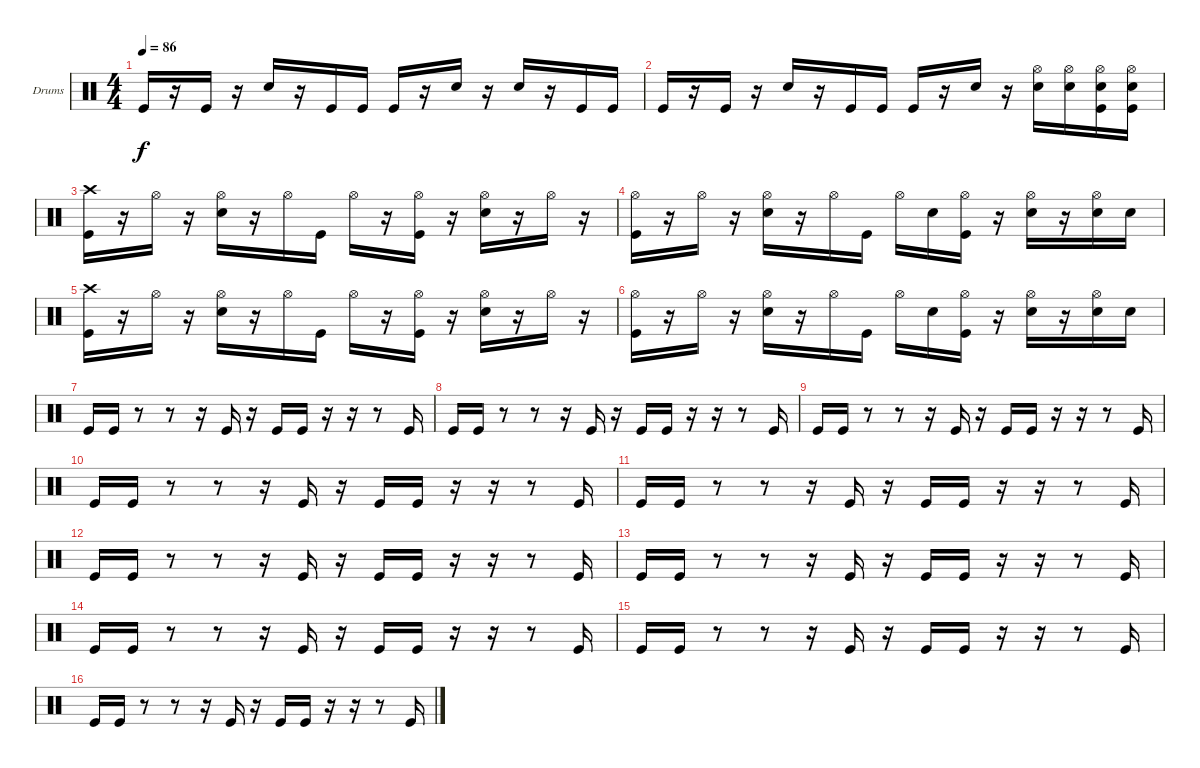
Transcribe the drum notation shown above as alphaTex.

\defaultSystemsLayout 4
\bracketExtendMode groupsimilarinstruments
\firstSystemTrackNameOrientation horizontal
\otherSystemsTrackNameOrientation horizontal
\track ("Rocky Gray (Drums)" "Drums") {instrument percussion}
\staff {score}
\articulation defaults
\ts (4 4)
\tempo 86
\clef neutral
\scale
0.472222
\ks c "Kick (hit)".16{dy f}
r.16 "Kick (hit)".16 r.16 "Snare (hit) 2".16 r.16 "Kick (hit)".16 "Kick (hit)".16 "Kick (hit)".16 r.16 "Snare (hit) 2".16 r.16 "Snare (hit) 2".16 r.16 "Kick (hit)".16 "Kick (hit)".16 |
\scale
0.263889 "Kick (hit)".16 r.16 "Kick (hit)".16 r.16 "Snare (hit) 2".16 r.16 "Kick (hit)".16 "Kick (hit)".16 "Kick (hit)".16 r.16 "Snare (hit) 2".16 r.16 ("Hi-Hat (open)" "Snare (hit) 2").16 ("Hi-Hat (open)" "Snare (hit) 2").16 ("Hi-Hat (open)" "Snare (hit) 2" "Kick (hit)").16 ("Hi-Hat (open)" "Snare (hit) 2" "Kick (hit)").16 |
\scale
0.263889 ("Crash high (hit)" "Kick (hit)").16 r.16 "Hi-Hat (open)".16 r.16 ("Hi-Hat (open)" "Snare (hit) 2").16 r.16 "Hi-Hat (open)".16 "Kick (hit)".16 "Hi-Hat (open)".16 r.16 ("Hi-Hat (open)" "Kick (hit)").16 r.16 ("Hi-Hat (open)" "Snare (hit) 2").16 r.16 "Hi-Hat (open)".16 r.16 |
\scale
0.333333 ("Hi-Hat (open)" "Kick (hit)").16 r.16 "Hi-Hat (open)".16 r.16 ("Hi-Hat (open)" "Snare (hit) 2").16 r.16 "Hi-Hat (open)".16 "Kick (hit)".16 "Hi-Hat (open)".16 "Snare (hit) 2".16 ("Hi-Hat (open)" "Kick (hit)").16 r.16 ("Hi-Hat (open)" "Snare (hit) 2").16 r.16 ("Hi-Hat (open)" "Snare (hit) 2").16 "Snare (hit) 2".16 |
\scale
0.333333 ("Crash high (hit)" "Kick (hit)").16 r.16 "Hi-Hat (open)".16 r.16 ("Hi-Hat (open)" "Snare (hit) 2").16 r.16 "Hi-Hat (open)".16 "Kick (hit)".16 "Hi-Hat (open)".16 r.16 ("Hi-Hat (open)" "Kick (hit)").16 r.16 ("Hi-Hat (open)" "Snare (hit) 2").16 r.16 "Hi-Hat (open)".16 r.16 |
\scale
0.333333 ("Hi-Hat (open)" "Kick (hit)").16 r.16 "Hi-Hat (open)".16 r.16 ("Hi-Hat (open)" "Snare (hit) 2").16 r.16 "Hi-Hat (open)".16 "Kick (hit)".16 "Hi-Hat (open)".16 "Snare (hit) 2".16 ("Hi-Hat (open)" "Kick (hit)").16 r.16 ("Hi-Hat (open)" "Snare (hit) 2").16 r.16 ("Hi-Hat (open)" "Snare (hit) 2").16 "Snare (hit) 2".16 |
\scale
0.333333 "Kick (hit)".16 "Kick (hit)".16 r.8 r.8 r.16 "Kick (hit)".16 r.16 "Kick (hit)".16 "Kick (hit)".16 r.16 r.16 r.8 "Kick (hit)".16 |
\scale
0.333333 "Kick (hit)".16 "Kick (hit)".16 r.8 r.8 r.16 "Kick (hit)".16 r.16 "Kick (hit)".16 "Kick (hit)".16 r.16 r.16 r.8 "Kick (hit)".16 |
\scale
0.333333 "Kick (hit)".16 "Kick (hit)".16 r.8 r.8 r.16 "Kick (hit)".16 r.16 "Kick (hit)".16 "Kick (hit)".16 r.16 r.16 r.8 "Kick (hit)".16 |
\scale
0.333333 "Kick (hit)".16 "Kick (hit)".16 r.8 r.8 r.16 "Kick (hit)".16 r.16 "Kick (hit)".16 "Kick (hit)".16 r.16 r.16 r.8 "Kick (hit)".16 |
\scale
0.333333 "Kick (hit)".16 "Kick (hit)".16 r.8 r.8 r.16 "Kick (hit)".16 r.16 "Kick (hit)".16 "Kick (hit)".16 r.16 r.16 r.8 "Kick (hit)".16 |
\scale
0.333333 "Kick (hit)".16 "Kick (hit)".16 r.8 r.8 r.16 "Kick (hit)".16 r.16 "Kick (hit)".16 "Kick (hit)".16 r.16 r.16 r.8 "Kick (hit)".16 |
\scale
0.333333 "Kick (hit)".16 "Kick (hit)".16 r.8 r.8 r.16 "Kick (hit)".16 r.16 "Kick (hit)".16 "Kick (hit)".16 r.16 r.16 r.8 "Kick (hit)".16 |
\scale
0.333333 "Kick (hit)".16 "Kick (hit)".16 r.8 r.8 r.16 "Kick (hit)".16 r.16 "Kick (hit)".16 "Kick (hit)".16 r.16 r.16 r.8 "Kick (hit)".16 |
\scale
0.333333 "Kick (hit)".16 "Kick (hit)".16 r.8 r.8 r.16 "Kick (hit)".16 r.16 "Kick (hit)".16 "Kick (hit)".16 r.16 r.16 r.8 "Kick (hit)".16 |
\scale
0.333333 "Kick (hit)".16 "Kick (hit)".16 r.8 r.8 r.16 "Kick (hit)".16 r.16 "Kick (hit)".16 "Kick (hit)".16 r.16 r.16 r.8 "Kick (hit)".16
